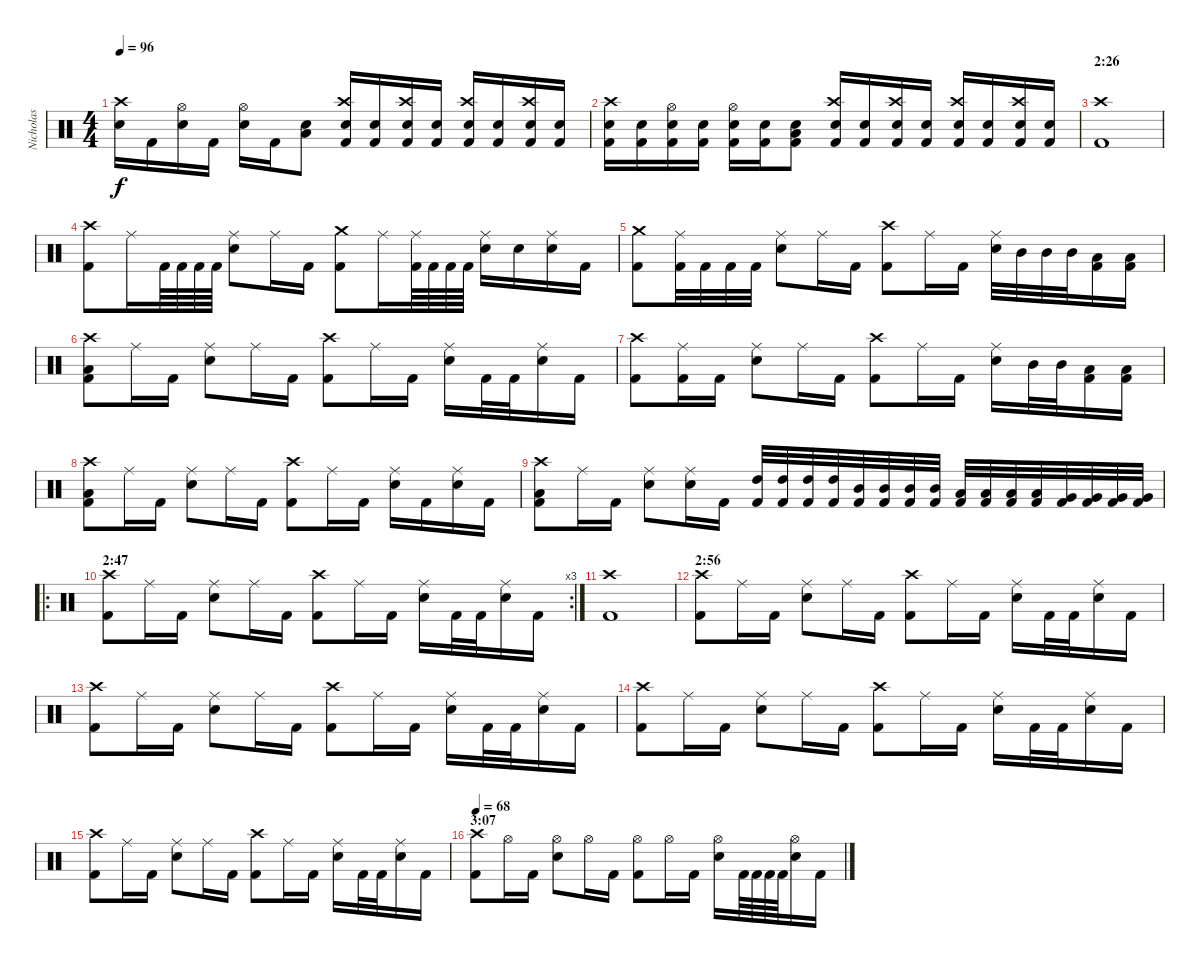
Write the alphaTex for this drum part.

\track ("Nicholas" "Nicholas") {instrument percussion}
\staff {score}
\articulation defaults
\ts (4 4)
\tempo 96
\clef neutral
\ks c
("Snare (hit) 2" "Crash high (hit)").16{dy f} "Kick (hit) 2".16 ("Snare (hit) 2" "Hi-Hat (open)").16 "Kick (hit) 2".16 ("Snare (hit) 2" "Hi-Hat (open)").16 "Kick (hit) 2".16 ("Snare (hit) 2" "Low Tom (hit)").8 ("Kick (hit) 2" "Snare (hit) 2" "Crash high (hit)").16 ("Kick (hit) 2" "Snare (hit) 2").16 ("Kick (hit) 2" "Snare (hit) 2" "Crash high (hit)").16 ("Kick (hit) 2" "Snare (hit) 2").16 ("Kick (hit) 2" "Snare (hit) 2" "Crash high (hit)").16 ("Kick (hit) 2" "Snare (hit) 2").16 ("Kick (hit) 2" "Snare (hit) 2" "Crash high (hit)").16 ("Kick (hit) 2" "Snare (hit) 2").16 |
("Kick (hit) 2" "Snare (hit) 2" "Crash high (hit)").16 ("Kick (hit) 2" "Snare (hit) 2").16 ("Kick (hit) 2" "Snare (hit) 2" "Hi-Hat (open)").16 ("Kick (hit) 2" "Snare (hit) 2").16 ("Kick (hit) 2" "Snare (hit) 2" "Hi-Hat (open)").16 ("Kick (hit) 2" "Snare (hit) 2").16 ("Kick (hit) 2" "Snare (hit) 2" "Low Tom (hit)").8 ("Kick (hit) 2" "Snare (hit) 2" "Crash high (hit)").16 ("Kick (hit) 2" "Snare (hit) 2").16 ("Kick (hit) 2" "Snare (hit) 2" "Crash high (hit)").16 ("Kick (hit) 2" "Snare (hit) 2").16 ("Kick (hit) 2" "Snare (hit) 2" "Crash high (hit)").16 ("Kick (hit) 2" "Snare (hit) 2").16 ("Kick (hit) 2" "Snare (hit) 2" "Crash high (hit)").16 ("Kick (hit) 2" "Snare (hit) 2").16 |
\section ("" "2:26")
("Kick (hit) 2" "Crash high (hit)").1 |
("Kick (hit) 2" "Crash high (hit)").8 "Ride (middle)".16 "Kick (hit) 2".64 "Kick (hit) 2".64 "Kick (hit) 2".64 "Kick (hit) 2".64 ("Snare (hit) 2" "Ride (middle)").8 "Ride (middle)".16 "Kick (hit) 2".16 ("Kick (hit) 2" "Crash medium (hit)").8 "Ride (middle)".16 ("Kick (hit) 2" "Ride (middle)").64 "Kick (hit) 2".64 "Kick (hit) 2".64 "Kick (hit) 2".64 ("Snare (hit) 2" "Ride (middle)").16 "Snare (hit) 2".16 ("Snare (hit) 2" "Ride (middle)").16 "Kick (hit) 2".16 |
("Kick (hit) 2" "Crash medium (hit)").8 ("Kick (hit) 2" "Ride (middle)").32 "Kick (hit) 2".32 "Kick (hit) 2".32 "Kick (hit) 2".32 ("Snare (hit) 2" "Ride (middle)").8 "Ride (middle)".16 "Kick (hit) 2".16 ("Kick (hit) 2" "Crash high (hit)").8 "Ride (middle)".16 "Kick (hit) 2".16 ("Snare (hit) 2" "Ride (middle)").32 "Mid Tom (hit)".32 "Mid Tom (hit)".32 "Mid Tom (hit)".32 ("Kick (hit) 2" "Low Tom (hit)").16 ("Kick (hit) 2" "Low Tom (hit)").16 |
("Kick (hit) 2" "Low Tom (hit)" "Crash high (hit)").8 "Ride (middle)".16 "Kick (hit) 2".16 ("Snare (hit) 2" "Ride (middle)").8 "Ride (middle)".16 "Kick (hit) 2".16 ("Kick (hit) 2" "Crash high (hit)").8 "Ride (middle)".16 "Kick (hit) 2".16 ("Snare (hit) 2" "Ride (middle)").16 "Kick (hit) 2".32 "Kick (hit) 2".32 ("Snare (hit) 2" "Ride (middle)").16 "Kick (hit) 2".16 |
("Kick (hit) 2" "Crash high (hit)").8 ("Kick (hit) 2" "Ride (middle)").16 "Kick (hit) 2".16 ("Snare (hit) 2" "Ride (middle)").8 "Ride (middle)".16 "Kick (hit) 2".16 ("Kick (hit) 2" "Crash high (hit)").8 "Ride (middle)".16 "Kick (hit) 2".16 ("Snare (hit) 2" "Ride (middle)").16 "Mid Tom (hit)".32 "Mid Tom (hit)".32 ("Kick (hit) 2" "Low Tom (hit)").16 ("Kick (hit) 2" "Low Tom (hit)").16 |
("Kick (hit) 2" "Low Tom (hit)" "Crash high (hit)").8 "Ride (middle)".16 "Kick (hit) 2".16 ("Snare (hit) 2" "Ride (middle)").8 "Ride (middle)".16 "Kick (hit) 2".16 ("Kick (hit) 2" "Crash high (hit)").8 "Ride (middle)".16 "Kick (hit) 2".16 ("Snare (hit) 2" "Ride (middle)").16 "Kick (hit) 2".16 ("Snare (hit) 2" "Ride (middle)").16 "Kick (hit) 2".16 |
("Kick (hit) 2" "Low Tom (hit)" "Crash high (hit)").8 "Ride (middle)".16 "Kick (hit) 2".16 ("Snare (hit) 2" "Ride (middle)").8 ("Snare (hit) 2" "Ride (middle)").16 "Kick (hit) 2".16 ("Kick (hit) 2" "High Tom (hit)").32 ("Kick (hit) 2" "High Tom (hit)").32 ("Kick (hit) 2" "High Tom (hit)").32 ("Kick (hit) 2" "High Tom (hit)").32 ("Kick (hit) 2" "Mid Tom (hit)").32 ("Kick (hit) 2" "Mid Tom (hit)").32 ("Kick (hit) 2" "Mid Tom (hit)").32 ("Kick (hit) 2" "Mid Tom (hit)").32 ("Kick (hit) 2" "Low Tom (hit)").32 ("Kick (hit) 2" "Low Tom (hit)").32 ("Kick (hit) 2" "Low Tom (hit)").32 ("Kick (hit) 2" "Low Tom (hit)").32 ("Kick (hit) 2" "Very Low Tom (hit)").32 ("Kick (hit) 2" "Very Low Tom (hit)").32 ("Kick (hit) 2" "Very Low Tom (hit)").32 ("Kick (hit) 2" "Very Low Tom (hit)").32 |
\ro
\rc 3
\section ("" "2:47")
("Kick (hit) 2" "Crash high (hit)").8 "Ride (middle)".16 "Kick (hit) 2".16 ("Snare (hit) 2" "Ride (middle)").8 "Ride (middle)".16 "Kick (hit) 2".16 ("Kick (hit) 2" "Crash high (hit)").8 "Ride (middle)".16 "Kick (hit) 2".16 ("Snare (hit) 2" "Ride (middle)").16 "Kick (hit) 2".32 "Kick (hit) 2".32 ("Snare (hit) 2" "Ride (middle)").16 "Kick (hit) 2".16 |
("Kick (hit) 2" "Crash high (hit)").1 |
\section ("" "2:56")
("Kick (hit) 2" "Crash high (hit)").8 "Ride (middle)".16 "Kick (hit) 2".16 ("Snare (hit) 2" "Ride (middle)").8 "Ride (middle)".16 "Kick (hit) 2".16 ("Kick (hit) 2" "Crash high (hit)").8 "Ride (middle)".16 "Kick (hit) 2".16 ("Snare (hit) 2" "Ride (middle)").16 "Kick (hit) 2".32 "Kick (hit) 2".32 ("Snare (hit) 2" "Ride (middle)").16 "Kick (hit) 2".16 |
("Kick (hit) 2" "Crash high (hit)").8 "Ride (middle)".16 "Kick (hit) 2".16 ("Snare (hit) 2" "Ride (middle)").8 "Ride (middle)".16 "Kick (hit) 2".16 ("Kick (hit) 2" "Crash high (hit)").8 "Ride (middle)".16 "Kick (hit) 2".16 ("Snare (hit) 2" "Ride (middle)").16 "Kick (hit) 2".32 "Kick (hit) 2".32 ("Snare (hit) 2" "Ride (middle)").16 "Kick (hit) 2".16 |
("Kick (hit) 2" "Crash high (hit)").8 "Ride (middle)".16 "Kick (hit) 2".16 ("Snare (hit) 2" "Ride (middle)").8 "Ride (middle)".16 "Kick (hit) 2".16 ("Kick (hit) 2" "Crash high (hit)").8 "Ride (middle)".16 "Kick (hit) 2".16 ("Snare (hit) 2" "Ride (middle)").16 "Kick (hit) 2".32 "Kick (hit) 2".32 ("Snare (hit) 2" "Ride (middle)").16 "Kick (hit) 2".16 |
("Kick (hit) 2" "Crash high (hit)").8 "Ride (middle)".16 "Kick (hit) 2".16 ("Snare (hit) 2" "Ride (middle)").8 "Ride (middle)".16 "Kick (hit) 2".16 ("Kick (hit) 2" "Crash high (hit)").8 "Ride (middle)".16 "Kick (hit) 2".16 ("Snare (hit) 2" "Ride (middle)").16 "Kick (hit) 2".32 "Kick (hit) 2".32 ("Snare (hit) 2" "Ride (middle)").16 "Kick (hit) 2".16 |
\section ("" "3:07")
\tempo 68
("Kick (hit) 2" "Crash high (hit)").8 "Hi-Hat (open)".16 "Kick (hit) 2".16 ("Snare (hit) 2" "Hi-Hat (open)").8 "Hi-Hat (open)".16 "Kick (hit) 2".16 ("Kick (hit) 2" "Hi-Hat (open)").8 "Hi-Hat (open)".16 "Kick (hit) 2".16 ("Snare (hit) 2" "Hi-Hat (open)").16 "Kick (hit) 2".64 "Kick (hit) 2".64 "Kick (hit) 2".64 "Kick (hit) 2".64 ("Snare (hit) 2" "Hi-Hat (open)").16 "Kick (hit) 2".16
